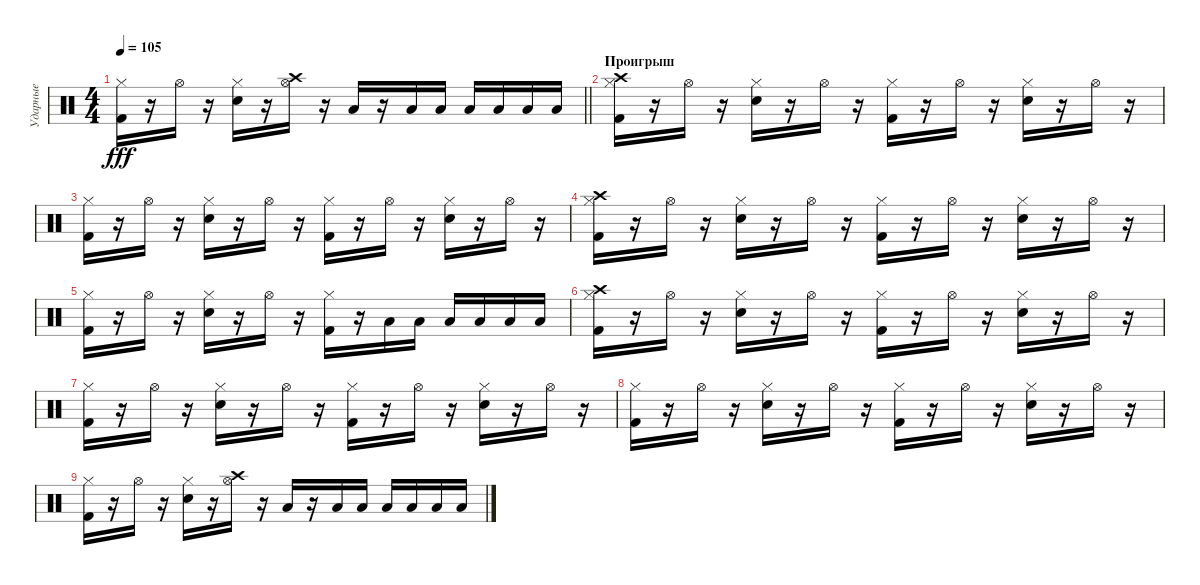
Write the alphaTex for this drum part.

\track ("Ударные" "Ударные") {instrument percussion}
\staff {score}
\articulation defaults
\ts (4 4)
\tempo 105
\clef neutral
\barLineRight lightlight
\ks c
("Kick (hit) 2" "Hi-Hat (closed)").16{dy fff} r.16 "Hi-Hat (open)".16 r.16 ("Snare (hit) 2" "Hi-Hat (closed)").16 r.16 ("Hi-Hat (open)" "Crash high (hit)").16 r.16 "Low Floor Tom (hit)".16 r.16 "Low Tom (hit)".16 "Low Floor Tom (hit)".16 "Low Tom (hit)".16 "Low Floor Tom (hit)".16 "Low Tom (hit)".16 "Low Floor Tom (hit)".16 |
\section ("" "Проигрыш")
("Kick (hit) 2" "Hi-Hat (closed)" "Crash high (hit)").16 r.16 "Hi-Hat (open)".16 r.16 ("Snare (hit) 2" "Hi-Hat (closed)").16 r.16 "Hi-Hat (open)".16 r.16 ("Kick (hit) 2" "Hi-Hat (closed)").16 r.16 "Hi-Hat (open)".16 r.16 ("Snare (hit) 2" "Hi-Hat (closed)").16 r.16 "Hi-Hat (open)".16 r.16 |
("Kick (hit) 2" "Hi-Hat (closed)").16 r.16 "Hi-Hat (open)".16 r.16 ("Snare (hit) 2" "Hi-Hat (closed)").16 r.16 "Hi-Hat (open)".16 r.16 ("Kick (hit) 2" "Hi-Hat (closed)").16 r.16 "Hi-Hat (open)".16 r.16 ("Snare (hit) 2" "Hi-Hat (closed)").16 r.16 "Hi-Hat (open)".16 r.16 |
("Kick (hit) 2" "Hi-Hat (closed)" "Crash high (hit)").16 r.16 "Hi-Hat (open)".16 r.16 ("Snare (hit) 2" "Hi-Hat (closed)").16 r.16 "Hi-Hat (open)".16 r.16 ("Kick (hit) 2" "Hi-Hat (closed)").16 r.16 "Hi-Hat (open)".16 r.16 ("Snare (hit) 2" "Hi-Hat (closed)").16 r.16 "Hi-Hat (open)".16 r.16 |
("Kick (hit) 2" "Hi-Hat (closed)").16 r.16 "Hi-Hat (open)".16 r.16 ("Snare (hit) 2" "Hi-Hat (closed)").16 r.16 "Hi-Hat (open)".16 r.16 ("Kick (hit) 2" "Hi-Hat (closed)").16 r.16 "Low Tom (hit)".16 "Low Floor Tom (hit)".16 "Low Tom (hit)".16 "Low Floor Tom (hit)".16 "Low Tom (hit)".16 "Low Floor Tom (hit)".16 |
("Kick (hit) 2" "Hi-Hat (closed)" "Crash high (hit)").16 r.16 "Hi-Hat (open)".16 r.16 ("Snare (hit) 2" "Hi-Hat (closed)").16 r.16 "Hi-Hat (open)".16 r.16 ("Kick (hit) 2" "Hi-Hat (closed)").16 r.16 "Hi-Hat (open)".16 r.16 ("Snare (hit) 2" "Hi-Hat (closed)").16 r.16 "Hi-Hat (open)".16 r.16 |
("Kick (hit) 2" "Hi-Hat (closed)").16 r.16 "Hi-Hat (open)".16 r.16 ("Snare (hit) 2" "Hi-Hat (closed)").16 r.16 "Hi-Hat (open)".16 r.16 ("Kick (hit) 2" "Hi-Hat (closed)").16 r.16 "Hi-Hat (open)".16 r.16 ("Snare (hit) 2" "Hi-Hat (closed)").16 r.16 "Hi-Hat (open)".16 r.16 |
("Kick (hit) 2" "Hi-Hat (closed)").16 r.16 "Hi-Hat (open)".16 r.16 ("Snare (hit) 2" "Hi-Hat (closed)").16 r.16 "Hi-Hat (open)".16 r.16 ("Kick (hit) 2" "Hi-Hat (closed)").16 r.16 "Hi-Hat (open)".16 r.16 ("Snare (hit) 2" "Hi-Hat (closed)").16 r.16 "Hi-Hat (open)".16 r.16 |
("Kick (hit) 2" "Hi-Hat (closed)").16 r.16 "Hi-Hat (open)".16 r.16 ("Snare (hit) 2" "Hi-Hat (closed)").16 r.16 ("Hi-Hat (open)" "Crash high (hit)").16 r.16 "Low Floor Tom (hit)".16 r.16 "Low Tom (hit)".16 "Low Floor Tom (hit)".16 "Low Tom (hit)".16 "Low Floor Tom (hit)".16 "Low Tom (hit)".16 "Low Floor Tom (hit)".16
